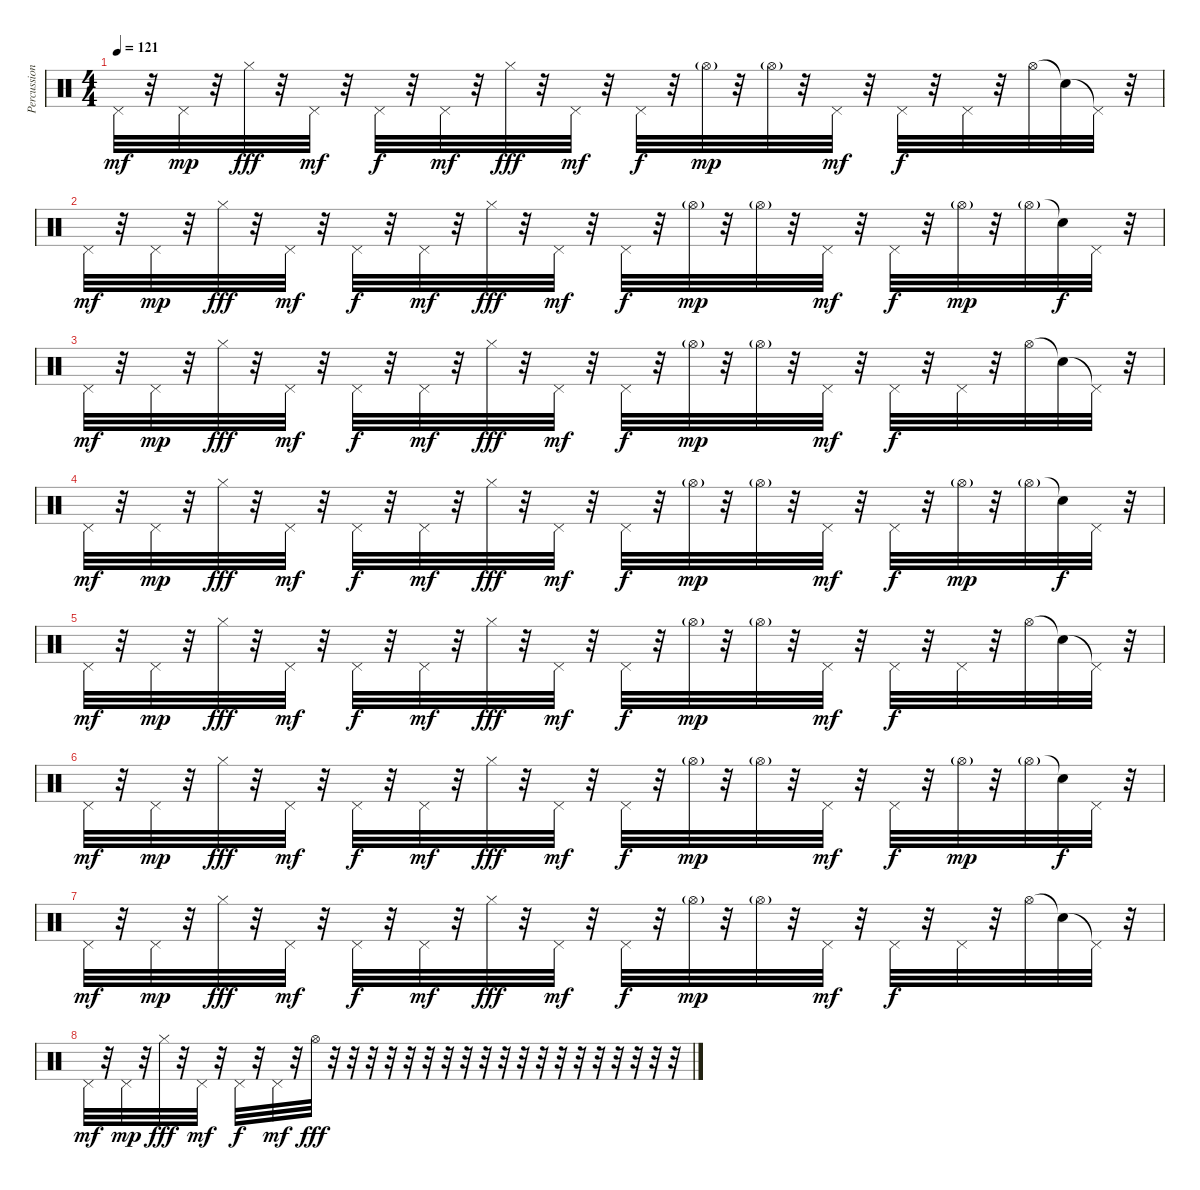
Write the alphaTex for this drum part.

\track ("Percussions" "Percussion") {instrument percussion}
\staff {score}
\articulation defaults
\ts (4 4)
\tempo 121
\clef neutral
\ks c "Pedal Hi-Hat (hit)".32{dy mf}
r.32 "Pedal Hi-Hat (hit)".32{dy mp} r.32 "Hi-Hat (closed)".32{dy fff} r.32 "Pedal Hi-Hat (hit)".32{dy mf} r.32 "Pedal Hi-Hat (hit)".32{dy f} r.32 "Pedal Hi-Hat (hit)".32{dy mf} r.32 "Hi-Hat (closed)".32{dy fff} r.32 "Pedal Hi-Hat (hit)".32{dy mf} r.32 "Pedal Hi-Hat (hit)".32{dy f} r.32 "Hi-Hat (open)"{g}.32{dy mp} r.32 "Hi-Hat (open)"{g}.32 r.32 "Pedal Hi-Hat (hit)".32{dy mf} r.32 "Pedal Hi-Hat (hit)".32{dy f} r.32 "Pedal Hi-Hat (hit)".32 r.32 "Hi-Hat (open)".32 "Snare (hit)"{t}.32 "Pedal Hi-Hat (hit)"{t}.32 r.32 |
"Pedal Hi-Hat (hit)".32{dy mf} r.32 "Pedal Hi-Hat (hit)".32{dy mp} r.32 "Hi-Hat (closed)".32{dy fff} r.32 "Pedal Hi-Hat (hit)".32{dy mf} r.32 "Pedal Hi-Hat (hit)".32{dy f} r.32 "Pedal Hi-Hat (hit)".32{dy mf} r.32 "Hi-Hat (closed)".32{dy fff} r.32 "Pedal Hi-Hat (hit)".32{dy mf} r.32 "Pedal Hi-Hat (hit)".32{dy f} r.32 "Hi-Hat (open)"{g}.32{dy mp} r.32 "Hi-Hat (open)"{g}.32 r.32 "Pedal Hi-Hat (hit)".32{dy mf} r.32 "Pedal Hi-Hat (hit)".32{dy f} r.32 "Hi-Hat (open)"{g}.32{dy mp} r.32 "Hi-Hat (open)"{g}.32 "Snare (hit)"{t}.32{dy f} "Pedal Hi-Hat (hit)".32 r.32 |
"Pedal Hi-Hat (hit)".32{dy mf} r.32 "Pedal Hi-Hat (hit)".32{dy mp} r.32 "Hi-Hat (closed)".32{dy fff} r.32 "Pedal Hi-Hat (hit)".32{dy mf} r.32 "Pedal Hi-Hat (hit)".32{dy f} r.32 "Pedal Hi-Hat (hit)".32{dy mf} r.32 "Hi-Hat (closed)".32{dy fff} r.32 "Pedal Hi-Hat (hit)".32{dy mf} r.32 "Pedal Hi-Hat (hit)".32{dy f} r.32 "Hi-Hat (open)"{g}.32{dy mp} r.32 "Hi-Hat (open)"{g}.32 r.32 "Pedal Hi-Hat (hit)".32{dy mf} r.32 "Pedal Hi-Hat (hit)".32{dy f} r.32 "Pedal Hi-Hat (hit)".32 r.32 "Hi-Hat (open)".32 "Snare (hit)"{t}.32 "Pedal Hi-Hat (hit)"{t}.32 r.32 |
"Pedal Hi-Hat (hit)".32{dy mf} r.32 "Pedal Hi-Hat (hit)".32{dy mp} r.32 "Hi-Hat (closed)".32{dy fff} r.32 "Pedal Hi-Hat (hit)".32{dy mf} r.32 "Pedal Hi-Hat (hit)".32{dy f} r.32 "Pedal Hi-Hat (hit)".32{dy mf} r.32 "Hi-Hat (closed)".32{dy fff} r.32 "Pedal Hi-Hat (hit)".32{dy mf} r.32 "Pedal Hi-Hat (hit)".32{dy f} r.32 "Hi-Hat (open)"{g}.32{dy mp} r.32 "Hi-Hat (open)"{g}.32 r.32 "Pedal Hi-Hat (hit)".32{dy mf} r.32 "Pedal Hi-Hat (hit)".32{dy f} r.32 "Hi-Hat (open)"{g}.32{dy mp} r.32 "Hi-Hat (open)"{g}.32 "Snare (hit)"{t}.32{dy f} "Pedal Hi-Hat (hit)".32 r.32 |
"Pedal Hi-Hat (hit)".32{dy mf} r.32 "Pedal Hi-Hat (hit)".32{dy mp} r.32 "Hi-Hat (closed)".32{dy fff} r.32 "Pedal Hi-Hat (hit)".32{dy mf} r.32 "Pedal Hi-Hat (hit)".32{dy f} r.32 "Pedal Hi-Hat (hit)".32{dy mf} r.32 "Hi-Hat (closed)".32{dy fff} r.32 "Pedal Hi-Hat (hit)".32{dy mf} r.32 "Pedal Hi-Hat (hit)".32{dy f} r.32 "Hi-Hat (open)"{g}.32{dy mp} r.32 "Hi-Hat (open)"{g}.32 r.32 "Pedal Hi-Hat (hit)".32{dy mf} r.32 "Pedal Hi-Hat (hit)".32{dy f} r.32 "Pedal Hi-Hat (hit)".32 r.32 "Hi-Hat (open)".32 "Snare (hit)"{t}.32 "Pedal Hi-Hat (hit)"{t}.32 r.32 |
"Pedal Hi-Hat (hit)".32{dy mf} r.32 "Pedal Hi-Hat (hit)".32{dy mp} r.32 "Hi-Hat (closed)".32{dy fff} r.32 "Pedal Hi-Hat (hit)".32{dy mf} r.32 "Pedal Hi-Hat (hit)".32{dy f} r.32 "Pedal Hi-Hat (hit)".32{dy mf} r.32 "Hi-Hat (closed)".32{dy fff} r.32 "Pedal Hi-Hat (hit)".32{dy mf} r.32 "Pedal Hi-Hat (hit)".32{dy f} r.32 "Hi-Hat (open)"{g}.32{dy mp} r.32 "Hi-Hat (open)"{g}.32 r.32 "Pedal Hi-Hat (hit)".32{dy mf} r.32 "Pedal Hi-Hat (hit)".32{dy f} r.32 "Hi-Hat (open)"{g}.32{dy mp} r.32 "Hi-Hat (open)"{g}.32 "Snare (hit)"{t}.32{dy f} "Pedal Hi-Hat (hit)".32 r.32 |
"Pedal Hi-Hat (hit)".32{dy mf} r.32 "Pedal Hi-Hat (hit)".32{dy mp} r.32 "Hi-Hat (closed)".32{dy fff} r.32 "Pedal Hi-Hat (hit)".32{dy mf} r.32 "Pedal Hi-Hat (hit)".32{dy f} r.32 "Pedal Hi-Hat (hit)".32{dy mf} r.32 "Hi-Hat (closed)".32{dy fff} r.32 "Pedal Hi-Hat (hit)".32{dy mf} r.32 "Pedal Hi-Hat (hit)".32{dy f} r.32 "Hi-Hat (open)"{g}.32{dy mp} r.32 "Hi-Hat (open)"{g}.32 r.32 "Pedal Hi-Hat (hit)".32{dy mf} r.32 "Pedal Hi-Hat (hit)".32{dy f} r.32 "Pedal Hi-Hat (hit)".32 r.32 "Hi-Hat (open)".32 "Snare (hit)"{t}.32 "Pedal Hi-Hat (hit)"{t}.32 r.32 |
"Pedal Hi-Hat (hit)".32{dy mf} r.32 "Pedal Hi-Hat (hit)".32{dy mp} r.32 "Hi-Hat (closed)".32{dy fff} r.32 "Pedal Hi-Hat (hit)".32{dy mf} r.32 "Pedal Hi-Hat (hit)".32{dy f} r.32 "Pedal Hi-Hat (hit)".32{dy mf} r.32 "Hi-Hat (open)".32{dy fff} r.32 r.32 r.32 r.32 r.32 r.32 r.32 r.32 r.32 r.32 r.32 r.32 r.32 r.32 r.32 r.32 r.32 r.32 r.32
